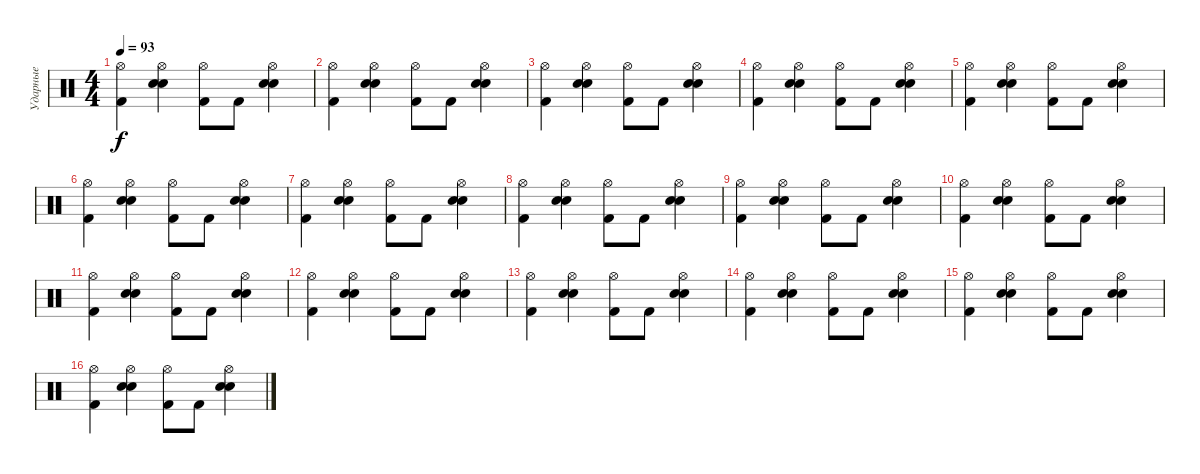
\track ("Ударные" "Ударные") {instrument percussion}
\staff {score}
\articulation defaults
\ts (4 4)
\tempo 93
\clef neutral
\ks c
("Hi-Hat (open)" "Kick (hit) 2").4{dy f} ("Hi-Hat (open)" "Snare (hit) 2" "Electric Snare (hit)").4 ("Hi-Hat (open)" "Kick (hit) 2").8 "Kick (hit) 2".8 ("Hi-Hat (open)" "Snare (hit) 2" "Electric Snare (hit)").4 |
("Hi-Hat (open)" "Kick (hit) 2").4 ("Hi-Hat (open)" "Snare (hit) 2" "Electric Snare (hit)").4 ("Hi-Hat (open)" "Kick (hit) 2").8 "Kick (hit) 2".8 ("Hi-Hat (open)" "Snare (hit) 2" "Electric Snare (hit)").4 |
("Hi-Hat (open)" "Kick (hit) 2").4 ("Hi-Hat (open)" "Snare (hit) 2" "Electric Snare (hit)").4 ("Hi-Hat (open)" "Kick (hit) 2").8 "Kick (hit) 2".8 ("Hi-Hat (open)" "Snare (hit) 2" "Electric Snare (hit)").4 |
("Hi-Hat (open)" "Kick (hit) 2").4 ("Hi-Hat (open)" "Snare (hit) 2" "Electric Snare (hit)").4 ("Hi-Hat (open)" "Kick (hit) 2").8 "Kick (hit) 2".8 ("Hi-Hat (open)" "Snare (hit) 2" "Electric Snare (hit)").4 |
("Hi-Hat (open)" "Kick (hit) 2").4 ("Hi-Hat (open)" "Snare (hit) 2" "Electric Snare (hit)").4 ("Hi-Hat (open)" "Kick (hit) 2").8 "Kick (hit) 2".8 ("Hi-Hat (open)" "Snare (hit) 2" "Electric Snare (hit)").4 |
("Hi-Hat (open)" "Kick (hit) 2").4 ("Hi-Hat (open)" "Snare (hit) 2" "Electric Snare (hit)").4 ("Hi-Hat (open)" "Kick (hit) 2").8 "Kick (hit) 2".8 ("Hi-Hat (open)" "Snare (hit) 2" "Electric Snare (hit)").4 |
("Hi-Hat (open)" "Kick (hit) 2").4 ("Hi-Hat (open)" "Snare (hit) 2" "Electric Snare (hit)").4 ("Hi-Hat (open)" "Kick (hit) 2").8 "Kick (hit) 2".8 ("Hi-Hat (open)" "Snare (hit) 2" "Electric Snare (hit)").4 |
("Hi-Hat (open)" "Kick (hit) 2").4 ("Hi-Hat (open)" "Snare (hit) 2" "Electric Snare (hit)").4 ("Hi-Hat (open)" "Kick (hit) 2").8 "Kick (hit) 2".8 ("Hi-Hat (open)" "Snare (hit) 2" "Electric Snare (hit)").4 |
("Hi-Hat (open)" "Kick (hit) 2").4 ("Hi-Hat (open)" "Snare (hit) 2" "Electric Snare (hit)").4 ("Hi-Hat (open)" "Kick (hit) 2").8 "Kick (hit) 2".8 ("Hi-Hat (open)" "Snare (hit) 2" "Electric Snare (hit)").4 |
("Hi-Hat (open)" "Kick (hit) 2").4 ("Hi-Hat (open)" "Snare (hit) 2" "Electric Snare (hit)").4 ("Hi-Hat (open)" "Kick (hit) 2").8 "Kick (hit) 2".8 ("Hi-Hat (open)" "Snare (hit) 2" "Electric Snare (hit)").4 |
("Hi-Hat (open)" "Kick (hit) 2").4 ("Hi-Hat (open)" "Snare (hit) 2" "Electric Snare (hit)").4 ("Hi-Hat (open)" "Kick (hit) 2").8 "Kick (hit) 2".8 ("Hi-Hat (open)" "Snare (hit) 2" "Electric Snare (hit)").4 |
("Hi-Hat (open)" "Kick (hit) 2").4 ("Hi-Hat (open)" "Snare (hit) 2" "Electric Snare (hit)").4 ("Hi-Hat (open)" "Kick (hit) 2").8 "Kick (hit) 2".8 ("Hi-Hat (open)" "Snare (hit) 2" "Electric Snare (hit)").4 |
("Hi-Hat (open)" "Kick (hit) 2").4 ("Hi-Hat (open)" "Snare (hit) 2" "Electric Snare (hit)").4 ("Hi-Hat (open)" "Kick (hit) 2").8 "Kick (hit) 2".8 ("Hi-Hat (open)" "Snare (hit) 2" "Electric Snare (hit)").4 |
("Hi-Hat (open)" "Kick (hit) 2").4 ("Hi-Hat (open)" "Snare (hit) 2" "Electric Snare (hit)").4 ("Hi-Hat (open)" "Kick (hit) 2").8 "Kick (hit) 2".8 ("Hi-Hat (open)" "Snare (hit) 2" "Electric Snare (hit)").4 |
("Hi-Hat (open)" "Kick (hit) 2").4 ("Hi-Hat (open)" "Snare (hit) 2" "Electric Snare (hit)").4 ("Hi-Hat (open)" "Kick (hit) 2").8 "Kick (hit) 2".8 ("Hi-Hat (open)" "Snare (hit) 2" "Electric Snare (hit)").4 |
("Hi-Hat (open)" "Kick (hit) 2").4 ("Hi-Hat (open)" "Snare (hit) 2" "Electric Snare (hit)").4 ("Hi-Hat (open)" "Kick (hit) 2").8 "Kick (hit) 2".8 ("Hi-Hat (open)" "Snare (hit) 2" "Electric Snare (hit)").4
